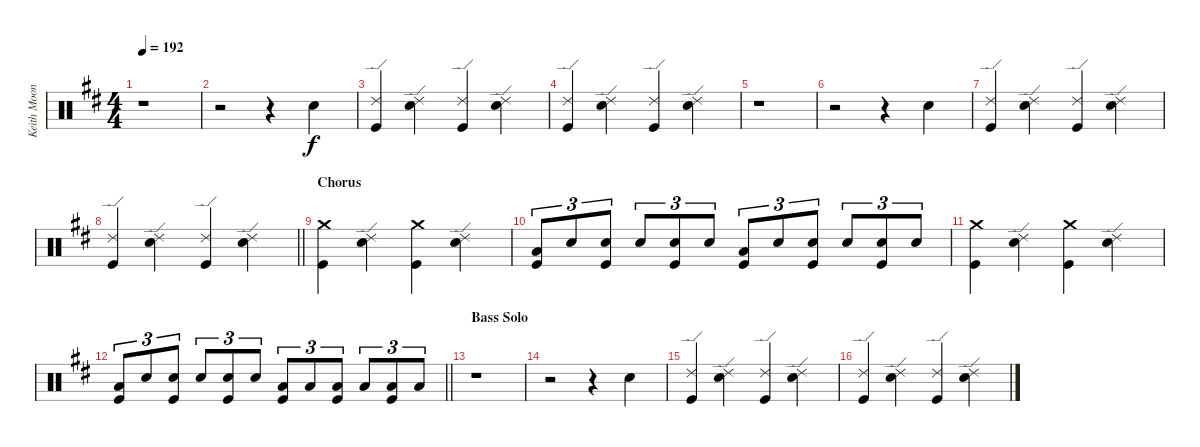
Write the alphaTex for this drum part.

\track ("Keith Moon - Drums" "Keith Moon") {instrument percussion}
\staff {score}
\articulation defaults
\ts (4 4)
\tempo 192
\clef neutral
\ks d
r.1{dy f} |
r.2 r.4 "Electric Snare (hit)".4 |
("Ride (edge) 2" "Kick (hit)").4 ("Ride (edge) 2" "Electric Snare (hit)").4 ("Ride (edge) 2" "Kick (hit)").4 ("Ride (edge) 2" "Electric Snare (hit)").4 |
("Ride (edge) 2" "Kick (hit)").4 ("Ride (edge) 2" "Electric Snare (hit)").4 ("Ride (edge) 2" "Kick (hit)").4 ("Ride (edge) 2" "Electric Snare (hit)").4 |
r.1 |
r.2 r.4 "Electric Snare (hit)".4 |
("Ride (edge) 2" "Kick (hit)").4 ("Ride (edge) 2" "Electric Snare (hit)").4 ("Ride (edge) 2" "Kick (hit)").4 ("Ride (edge) 2" "Electric Snare (hit)").4 |
\barLineRight lightlight
("Ride (edge) 2" "Kick (hit)").4 ("Ride (edge) 2" "Electric Snare (hit)").4 ("Ride (edge) 2" "Kick (hit)").4 ("Ride (edge) 2" "Electric Snare (hit)").4 |
\section ("" "Chorus")
("Crash medium (hit)" "Kick (hit)").4 ("Ride (edge) 2" "Electric Snare (hit)").4 ("Crash medium (hit)" "Kick (hit)").4 ("Ride (edge) 2" "Electric Snare (hit)").4 |
("Low Floor Tom (hit)" "Kick (hit)").8{tu (3 2)} "Electric Snare (hit)".8{tu (3 2)} ("Electric Snare (hit)" "Kick (hit)").8{tu (3 2)} "Electric Snare (hit)".8{tu (3 2)} ("Electric Snare (hit)" "Kick (hit)").8{tu (3 2)} "Electric Snare (hit)".8{tu (3 2)} ("Low Floor Tom (hit)" "Kick (hit)").8{tu (3 2)} "Electric Snare (hit)".8{tu (3 2)} ("Electric Snare (hit)" "Kick (hit)").8{tu (3 2)} "Electric Snare (hit)".8{tu (3 2)} ("Electric Snare (hit)" "Kick (hit)").8{tu (3 2)} "Electric Snare (hit)".8{tu (3 2)} |
("Crash medium (hit)" "Kick (hit)").4 ("Ride (edge) 2" "Electric Snare (hit)").4 ("Crash medium (hit)" "Kick (hit)").4 ("Ride (edge) 2" "Electric Snare (hit)").4 |
\barLineRight lightlight
("Low Floor Tom (hit)" "Kick (hit)").8{tu (3 2)} "Electric Snare (hit)".8{tu (3 2)} ("Electric Snare (hit)" "Kick (hit)").8{tu (3 2)} "Electric Snare (hit)".8{tu (3 2)} ("Electric Snare (hit)" "Kick (hit)").8{tu (3 2)} "Electric Snare (hit)".8{tu (3 2)} ("Low Floor Tom (hit)" "Kick (hit)").8{tu (3 2)} "Low Floor Tom (hit)".8{tu (3 2)} ("Low Floor Tom (hit)" "Kick (hit)").8{tu (3 2)} "Low Floor Tom (hit)".8{tu (3 2)} ("Low Floor Tom (hit)" "Kick (hit)").8{tu (3 2)} "Low Floor Tom (hit)".8{tu (3 2)} |
\section ("" "Bass Solo")
r.1 |
r.2 r.4 "Electric Snare (hit)".4 |
("Ride (edge) 2" "Kick (hit)").4 ("Ride (edge) 2" "Electric Snare (hit)").4 ("Ride (edge) 2" "Kick (hit)").4 ("Ride (edge) 2" "Electric Snare (hit)").4 |
("Ride (edge) 2" "Kick (hit)").4 ("Ride (edge) 2" "Electric Snare (hit)").4 ("Ride (edge) 2" "Kick (hit)").4 ("Ride (edge) 2" "Electric Snare (hit)").4
